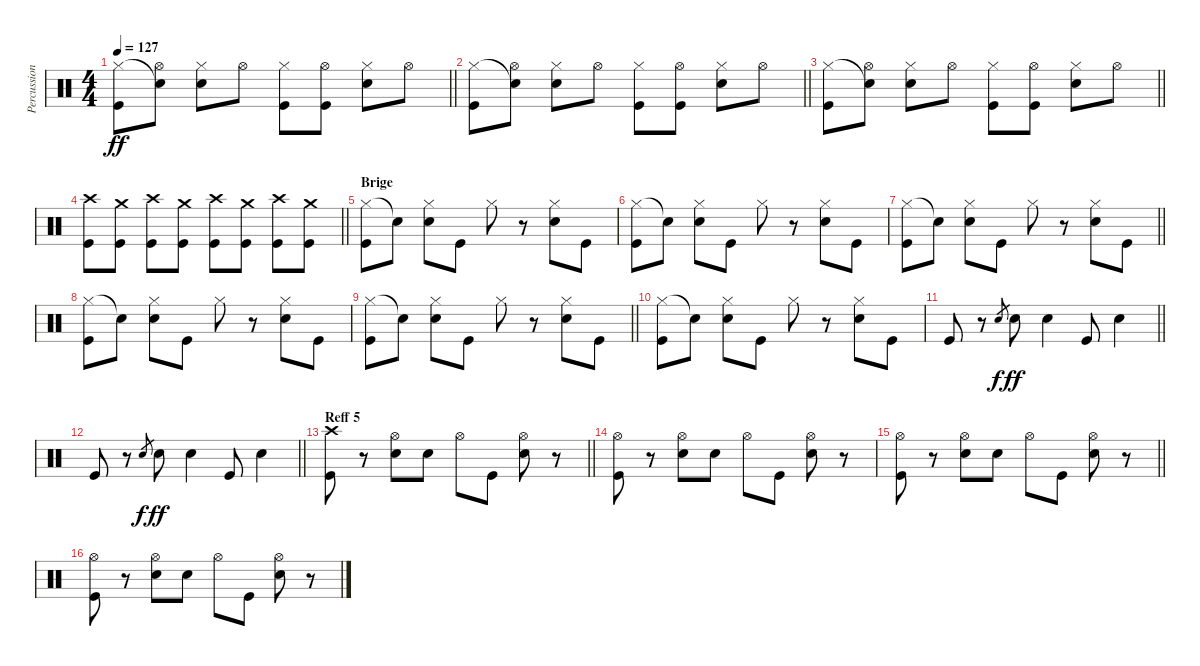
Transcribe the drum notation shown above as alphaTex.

\track ("Percussion" "Percussion") {instrument percussion}
\staff {score}
\articulation defaults
\ts (4 4)
\tempo 127
\clef neutral
\barLineRight lightlight
\ks c
("Hi-Hat (closed)" "Kick (hit)").8{dy ff} ("Snare (hit)"{t} "Hi-Hat (open)").8 ("Hi-Hat (closed)" "Electric Snare (hit)").8 "Hi-Hat (open)".8 ("Hi-Hat (closed)" "Kick (hit)").8 ("Hi-Hat (open)" "Kick (hit)").8 ("Hi-Hat (closed)" "Electric Snare (hit)").8 "Hi-Hat (open)".8 |
\barLineRight lightlight
("Hi-Hat (closed)" "Kick (hit)").8 ("Snare (hit)"{t} "Hi-Hat (open)").8 ("Hi-Hat (closed)" "Electric Snare (hit)").8 "Hi-Hat (open)".8 ("Hi-Hat (closed)" "Kick (hit)").8 ("Hi-Hat (open)" "Kick (hit)").8 ("Hi-Hat (closed)" "Electric Snare (hit)").8 "Hi-Hat (open)".8 |
\barLineRight lightlight
("Hi-Hat (closed)" "Kick (hit)").8 ("Snare (hit)"{t} "Hi-Hat (open)").8 ("Hi-Hat (closed)" "Electric Snare (hit)").8 "Hi-Hat (open)".8 ("Hi-Hat (closed)" "Kick (hit)").8 ("Hi-Hat (open)" "Kick (hit)").8 ("Hi-Hat (closed)" "Electric Snare (hit)").8 "Hi-Hat (open)".8 |
\barLineRight lightlight
("Crash high (hit)" "Kick (hit)").8 ("Crash medium (hit)" "Kick (hit)").8 ("Crash high (hit)" "Kick (hit)").8 ("Crash medium (hit)" "Kick (hit)").8 ("Crash high (hit)" "Kick (hit)").8 ("Crash medium (hit)" "Kick (hit)").8 ("Crash high (hit)" "Kick (hit)").8 ("Crash medium (hit)" "Kick (hit)").8 |
\section ("" "Brige")
("Hi-Hat (closed)" "Kick (hit)").8 "Snare (hit)"{t}.8 ("Hi-Hat (closed)" "Electric Snare (hit)").8 "Kick (hit)".8 "Hi-Hat (closed)".8 r.8 ("Hi-Hat (closed)" "Electric Snare (hit)").8 "Kick (hit)".8 |
("Hi-Hat (closed)" "Kick (hit)").8 "Snare (hit)"{t}.8 ("Hi-Hat (closed)" "Electric Snare (hit)").8 "Kick (hit)".8 "Hi-Hat (closed)".8 r.8 ("Hi-Hat (closed)" "Electric Snare (hit)").8 "Kick (hit)".8 |
\barLineRight lightlight
("Hi-Hat (closed)" "Kick (hit)").8 "Snare (hit)"{t}.8 ("Hi-Hat (closed)" "Electric Snare (hit)").8 "Kick (hit)".8 "Hi-Hat (closed)".8 r.8 ("Hi-Hat (closed)" "Electric Snare (hit)").8 "Kick (hit)".8 |
("Hi-Hat (closed)" "Kick (hit)").8 "Snare (hit)"{t}.8 ("Hi-Hat (closed)" "Electric Snare (hit)").8 "Kick (hit)".8 "Hi-Hat (closed)".8 r.8 ("Hi-Hat (closed)" "Electric Snare (hit)").8 "Kick (hit)".8 |
\barLineRight lightlight
("Hi-Hat (closed)" "Kick (hit)").8 "Snare (hit)"{t}.8 ("Hi-Hat (closed)" "Electric Snare (hit)").8 "Kick (hit)".8 "Hi-Hat (closed)".8 r.8 ("Hi-Hat (closed)" "Electric Snare (hit)").8 "Kick (hit)".8 |
("Hi-Hat (closed)" "Kick (hit)").8 "Snare (hit)"{t}.8 ("Hi-Hat (closed)" "Electric Snare (hit)").8 "Kick (hit)".8 "Hi-Hat (closed)".8 r.8 ("Hi-Hat (closed)" "Electric Snare (hit)").8 "Kick (hit)".8 |
\barLineRight lightlight "Kick (hit)".8
r.8 "Electric Snare (hit)".8{gr dy f} "Electric Snare (hit)".8{dy ff} "Electric Snare (hit)".4 "Kick (hit)".8 "Electric Snare (hit)".4 |
\barLineRight lightlight "Kick (hit)".8
r.8 "Electric Snare (hit)".8{gr dy f} "Electric Snare (hit)".8{dy ff} "Electric Snare (hit)".4 "Kick (hit)".8 "Electric Snare (hit)".4 |
\section ("" "Reff 5")
\barLineRight lightlight
("Crash high (hit)" "Kick (hit)").8 r.8 ("Hi-Hat (open)" "Electric Snare (hit)").8 "Electric Snare (hit)".8 "Hi-Hat (open)".8 "Kick (hit)".8 ("Hi-Hat (open)" "Electric Snare (hit)").8 r.8 |
("Hi-Hat (open)" "Kick (hit)").8 r.8 ("Hi-Hat (open)" "Electric Snare (hit)").8 "Electric Snare (hit)".8 "Hi-Hat (open)".8 "Kick (hit)".8 ("Hi-Hat (open)" "Electric Snare (hit)").8 r.8 |
\barLineRight lightlight
("Hi-Hat (open)" "Kick (hit)").8 r.8 ("Hi-Hat (open)" "Electric Snare (hit)").8 "Electric Snare (hit)".8 "Hi-Hat (open)".8 "Kick (hit)".8 ("Hi-Hat (open)" "Electric Snare (hit)").8 r.8 |
("Hi-Hat (open)" "Kick (hit)").8 r.8 ("Hi-Hat (open)" "Electric Snare (hit)").8 "Electric Snare (hit)".8 "Hi-Hat (open)".8 "Kick (hit)".8 ("Hi-Hat (open)" "Electric Snare (hit)").8 r.8
